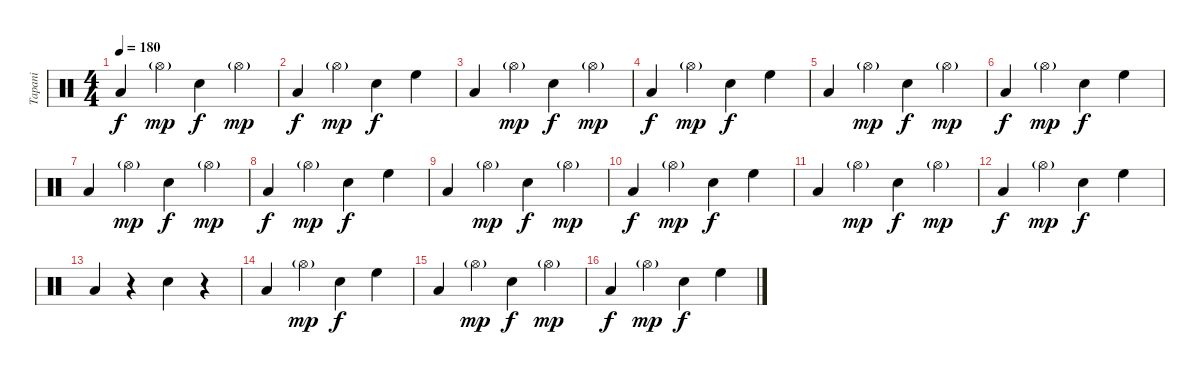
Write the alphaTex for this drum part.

\track ("Tapani" "Tapani") {instrument percussion}
\staff {score}
\articulation defaults
\ts (4 4)
\tempo 180
\clef neutral
\ks c "Low Tom (hit)".4{dy f} "Hi-Hat (open)"{g}.4{dy mp} "Electric Snare (hit)".4{dy f} "Hi-Hat (open)"{g}.4{dy mp}
|
"Low Tom (hit)".4{dy f} "Hi-Hat (open)"{g}.4{dy mp} "Electric Snare (hit)".4{dy f} "High Floor Tom (hit)".4 |
"Low Tom (hit)".4 "Hi-Hat (open)"{g}.4{dy mp} "Electric Snare (hit)".4{dy f} "Hi-Hat (open)"{g}.4{dy mp} |
"Low Tom (hit)".4{dy f} "Hi-Hat (open)"{g}.4{dy mp} "Electric Snare (hit)".4{dy f} "High Floor Tom (hit)".4 |
"Low Tom (hit)".4 "Hi-Hat (open)"{g}.4{dy mp} "Electric Snare (hit)".4{dy f} "Hi-Hat (open)"{g}.4{dy mp} |
"Low Tom (hit)".4{dy f} "Hi-Hat (open)"{g}.4{dy mp} "Electric Snare (hit)".4{dy f} "High Floor Tom (hit)".4 |
"Low Tom (hit)".4 "Hi-Hat (open)"{g}.4{dy mp} "Electric Snare (hit)".4{dy f} "Hi-Hat (open)"{g}.4{dy mp} |
"Low Tom (hit)".4{dy f} "Hi-Hat (open)"{g}.4{dy mp} "Electric Snare (hit)".4{dy f} "High Floor Tom (hit)".4 |
"Low Tom (hit)".4 "Hi-Hat (open)"{g}.4{dy mp} "Electric Snare (hit)".4{dy f} "Hi-Hat (open)"{g}.4{dy mp} |
"Low Tom (hit)".4{dy f} "Hi-Hat (open)"{g}.4{dy mp} "Electric Snare (hit)".4{dy f} "High Floor Tom (hit)".4 |
"Low Tom (hit)".4 "Hi-Hat (open)"{g}.4{dy mp} "Electric Snare (hit)".4{dy f} "Hi-Hat (open)"{g}.4{dy mp} |
"Low Tom (hit)".4{dy f} "Hi-Hat (open)"{g}.4{dy mp} "Electric Snare (hit)".4{dy f} "High Floor Tom (hit)".4 |
"Low Tom (hit)".4 r.4 "Electric Snare (hit)".4 r.4 |
"Low Tom (hit)".4 "Hi-Hat (open)"{g}.4{dy mp} "Electric Snare (hit)".4{dy f} "High Floor Tom (hit)".4 |
"Low Tom (hit)".4 "Hi-Hat (open)"{g}.4{dy mp} "Electric Snare (hit)".4{dy f} "Hi-Hat (open)"{g}.4{dy mp} |
"Low Tom (hit)".4{dy f} "Hi-Hat (open)"{g}.4{dy mp} "Electric Snare (hit)".4{dy f} "High Floor Tom (hit)".4
